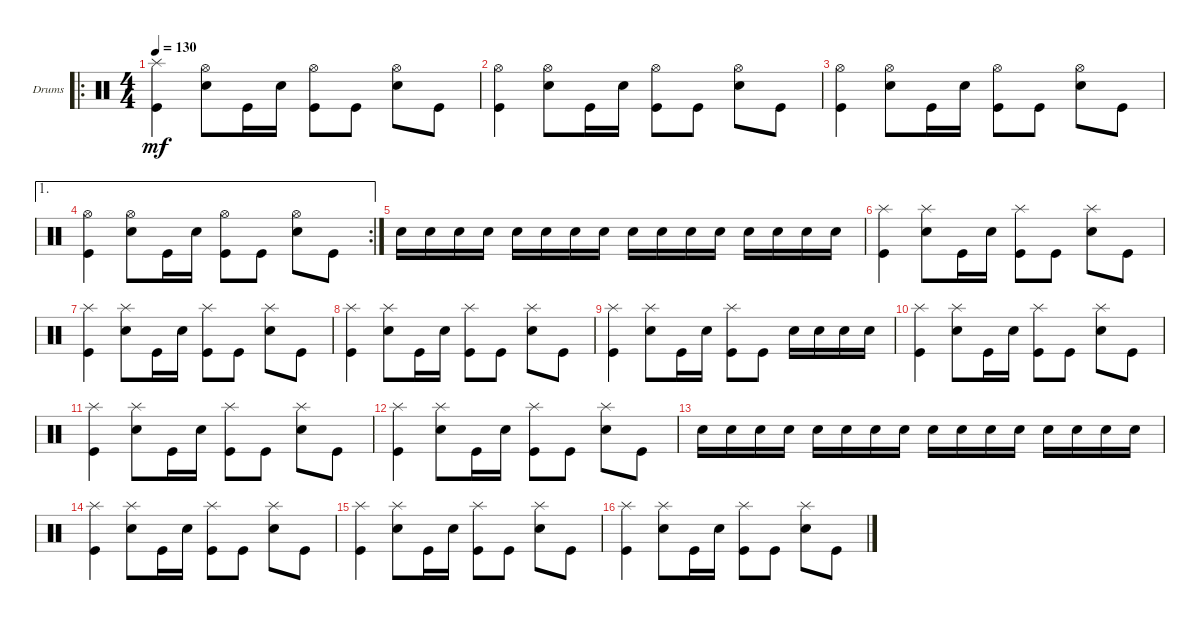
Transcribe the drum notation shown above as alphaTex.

\defaultSystemsLayout 4
\bracketExtendMode groupsimilarinstruments
\firstSystemTrackNameOrientation horizontal
\otherSystemsTrackNameOrientation horizontal
\track ("Drumkit" "Drums") {instrument percussion}
\staff {score}
\articulation defaults
\ro
\ts (4 4)
\tempo 130
\clef neutral
\ks c
("Kick (hit)" "Splash (hit)").4{dy mf} ("Hi-Hat (open)" "Snare (hit) 2").8 "Kick (hit)".16 "Snare (hit) 2".16 ("Kick (hit)" "Hi-Hat (open)").8 "Kick (hit)".8 ("Snare (hit) 2" "Hi-Hat (open)").8 "Kick (hit)".8 |
("Kick (hit)" "Hi-Hat (open)").4 ("Hi-Hat (open)" "Snare (hit) 2").8 "Kick (hit)".16 "Snare (hit) 2".16 ("Kick (hit)" "Hi-Hat (open)").8 "Kick (hit)".8 ("Snare (hit) 2" "Hi-Hat (open)").8 "Kick (hit)".8 |
("Kick (hit)" "Hi-Hat (open)").4 ("Hi-Hat (open)" "Snare (hit) 2").8 "Kick (hit)".16 "Snare (hit) 2".16 ("Kick (hit)" "Hi-Hat (open)").8 "Kick (hit)".8 ("Snare (hit) 2" "Hi-Hat (open)").8 "Kick (hit)".8 |
\ae 1
\rc 2
("Kick (hit)" "Hi-Hat (open)").4 ("Hi-Hat (open)" "Snare (hit) 2").8 "Kick (hit)".16 "Snare (hit) 2".16 ("Kick (hit)" "Hi-Hat (open)").8 "Kick (hit)".8 ("Snare (hit) 2" "Hi-Hat (open)").8 "Kick (hit)".8 |
"Snare (hit) 2".16 "Snare (hit) 2".16 "Snare (hit) 2".16 "Snare (hit) 2".16 "Snare (hit) 2".16 "Snare (hit) 2".16 "Snare (hit) 2".16 "Snare (hit) 2".16 "Snare (hit) 2".16 "Snare (hit) 2".16 "Snare (hit) 2".16 "Snare (hit) 2".16 "Snare (hit) 2".16 "Snare (hit) 2".16 "Snare (hit) 2".16 "Snare (hit) 2".16 |
("Kick (hit)" "Splash (hit)").4 ("Snare (hit) 2" "Splash (hit)").8 "Kick (hit)".16 "Snare (hit) 2".16 ("Kick (hit)" "Splash (hit)").8 "Kick (hit)".8 ("Snare (hit) 2" "Splash (hit)").8 "Kick (hit)".8 |
("Kick (hit)" "Splash (hit)").4 ("Snare (hit) 2" "Splash (hit)").8 "Kick (hit)".16 "Snare (hit) 2".16 ("Kick (hit)" "Splash (hit)").8 "Kick (hit)".8 ("Snare (hit) 2" "Splash (hit)").8 "Kick (hit)".8 |
("Kick (hit)" "Splash (hit)").4 ("Snare (hit) 2" "Splash (hit)").8 "Kick (hit)".16 "Snare (hit) 2".16 ("Kick (hit)" "Splash (hit)").8 "Kick (hit)".8 ("Snare (hit) 2" "Splash (hit)").8 "Kick (hit)".8 |
("Kick (hit)" "Splash (hit)").4 ("Snare (hit) 2" "Splash (hit)").8 "Kick (hit)".16 "Snare (hit) 2".16 ("Kick (hit)" "Splash (hit)").8 "Kick (hit)".8 "Snare (hit) 2".16 "Snare (hit) 2".16 "Snare (hit) 2".16 "Snare (hit) 2".16 |
("Kick (hit)" "Splash (hit)").4 ("Snare (hit) 2" "Splash (hit)").8 "Kick (hit)".16 "Snare (hit) 2".16 ("Kick (hit)" "Splash (hit)").8 "Kick (hit)".8 ("Snare (hit) 2" "Splash (hit)").8 "Kick (hit)".8 |
("Kick (hit)" "Splash (hit)").4 ("Snare (hit) 2" "Splash (hit)").8 "Kick (hit)".16 "Snare (hit) 2".16 ("Kick (hit)" "Splash (hit)").8 "Kick (hit)".8 ("Snare (hit) 2" "Splash (hit)").8 "Kick (hit)".8 |
("Kick (hit)" "Splash (hit)").4 ("Snare (hit) 2" "Splash (hit)").8 "Kick (hit)".16 "Snare (hit) 2".16 ("Kick (hit)" "Splash (hit)").8 "Kick (hit)".8 ("Snare (hit) 2" "Splash (hit)").8 "Kick (hit)".8 |
"Snare (hit) 2".16 "Snare (hit) 2".16 "Snare (hit) 2".16 "Snare (hit) 2".16 "Snare (hit) 2".16 "Snare (hit) 2".16 "Snare (hit) 2".16 "Snare (hit) 2".16 "Snare (hit) 2".16 "Snare (hit) 2".16 "Snare (hit) 2".16 "Snare (hit) 2".16 "Snare (hit) 2".16 "Snare (hit) 2".16 "Snare (hit) 2".16 "Snare (hit) 2".16 |
("Kick (hit)" "Splash (hit)").4 ("Snare (hit) 2" "Splash (hit)").8 "Kick (hit)".16 "Snare (hit) 2".16 ("Kick (hit)" "Splash (hit)").8 "Kick (hit)".8 ("Snare (hit) 2" "Splash (hit)").8 "Kick (hit)".8 |
("Kick (hit)" "Splash (hit)").4 ("Snare (hit) 2" "Splash (hit)").8 "Kick (hit)".16 "Snare (hit) 2".16 ("Kick (hit)" "Splash (hit)").8 "Kick (hit)".8 ("Snare (hit) 2" "Splash (hit)").8 "Kick (hit)".8 |
("Kick (hit)" "Splash (hit)").4 ("Snare (hit) 2" "Splash (hit)").8 "Kick (hit)".16 "Snare (hit) 2".16 ("Kick (hit)" "Splash (hit)").8 "Kick (hit)".8 ("Snare (hit) 2" "Splash (hit)").8 "Kick (hit)".8
